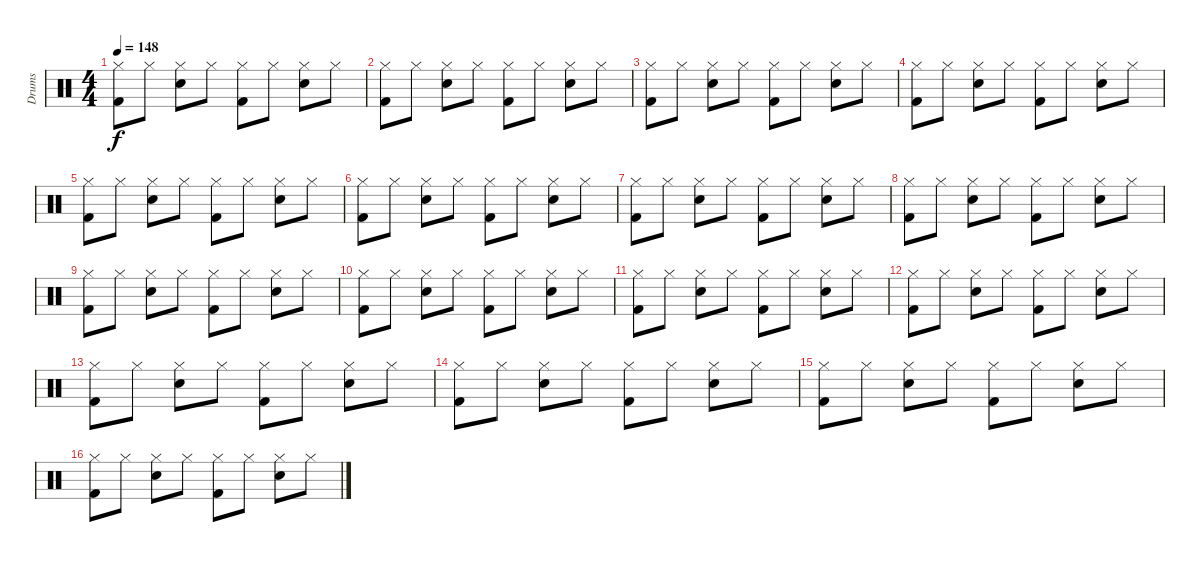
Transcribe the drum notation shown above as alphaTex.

\track ("Drums" "Drums") {instrument percussion}
\staff {score}
\articulation defaults
\ts (4 4)
\tempo 148
\clef neutral
\ks c
("Kick (hit) 2" "Hi-Hat (closed)").8{dy f} "Hi-Hat (closed)".8 ("Snare (hit) 2" "Hi-Hat (closed)").8 "Hi-Hat (closed)".8 ("Kick (hit) 2" "Hi-Hat (closed)").8 "Hi-Hat (closed)".8 ("Snare (hit) 2" "Hi-Hat (closed)").8 "Hi-Hat (closed)".8 |
("Kick (hit) 2" "Hi-Hat (closed)").8 "Hi-Hat (closed)".8 ("Snare (hit) 2" "Hi-Hat (closed)").8 "Hi-Hat (closed)".8 ("Kick (hit) 2" "Hi-Hat (closed)").8 "Hi-Hat (closed)".8 ("Snare (hit) 2" "Hi-Hat (closed)").8 "Hi-Hat (closed)".8 |
("Kick (hit) 2" "Hi-Hat (closed)").8 "Hi-Hat (closed)".8 ("Snare (hit) 2" "Hi-Hat (closed)").8 "Hi-Hat (closed)".8 ("Kick (hit) 2" "Hi-Hat (closed)").8 "Hi-Hat (closed)".8 ("Snare (hit) 2" "Hi-Hat (closed)").8 "Hi-Hat (closed)".8 |
("Kick (hit) 2" "Hi-Hat (closed)").8 "Hi-Hat (closed)".8 ("Snare (hit) 2" "Hi-Hat (closed)").8 "Hi-Hat (closed)".8 ("Kick (hit) 2" "Hi-Hat (closed)").8 "Hi-Hat (closed)".8 ("Snare (hit) 2" "Hi-Hat (closed)").8 "Hi-Hat (closed)".8 |
("Kick (hit) 2" "Hi-Hat (closed)").8 "Hi-Hat (closed)".8 ("Snare (hit) 2" "Hi-Hat (closed)").8 "Hi-Hat (closed)".8 ("Kick (hit) 2" "Hi-Hat (closed)").8 "Hi-Hat (closed)".8 ("Snare (hit) 2" "Hi-Hat (closed)").8 "Hi-Hat (closed)".8 |
("Kick (hit) 2" "Hi-Hat (closed)").8 "Hi-Hat (closed)".8 ("Snare (hit) 2" "Hi-Hat (closed)").8 "Hi-Hat (closed)".8 ("Kick (hit) 2" "Hi-Hat (closed)").8 "Hi-Hat (closed)".8 ("Snare (hit) 2" "Hi-Hat (closed)").8 "Hi-Hat (closed)".8 |
("Kick (hit) 2" "Hi-Hat (closed)").8 "Hi-Hat (closed)".8 ("Snare (hit) 2" "Hi-Hat (closed)").8 "Hi-Hat (closed)".8 ("Kick (hit) 2" "Hi-Hat (closed)").8 "Hi-Hat (closed)".8 ("Snare (hit) 2" "Hi-Hat (closed)").8 "Hi-Hat (closed)".8 |
("Kick (hit) 2" "Hi-Hat (closed)").8 "Hi-Hat (closed)".8 ("Snare (hit) 2" "Hi-Hat (closed)").8 "Hi-Hat (closed)".8 ("Kick (hit) 2" "Hi-Hat (closed)").8 "Hi-Hat (closed)".8 ("Snare (hit) 2" "Hi-Hat (closed)").8 "Hi-Hat (closed)".8 |
("Kick (hit) 2" "Hi-Hat (closed)").8 "Hi-Hat (closed)".8 ("Snare (hit) 2" "Hi-Hat (closed)").8 "Hi-Hat (closed)".8 ("Kick (hit) 2" "Hi-Hat (closed)").8 "Hi-Hat (closed)".8 ("Snare (hit) 2" "Hi-Hat (closed)").8 "Hi-Hat (closed)".8 |
("Kick (hit) 2" "Hi-Hat (closed)").8 "Hi-Hat (closed)".8 ("Snare (hit) 2" "Hi-Hat (closed)").8 "Hi-Hat (closed)".8 ("Kick (hit) 2" "Hi-Hat (closed)").8 "Hi-Hat (closed)".8 ("Snare (hit) 2" "Hi-Hat (closed)").8 "Hi-Hat (closed)".8 |
("Kick (hit) 2" "Hi-Hat (closed)").8 "Hi-Hat (closed)".8 ("Snare (hit) 2" "Hi-Hat (closed)").8 "Hi-Hat (closed)".8 ("Kick (hit) 2" "Hi-Hat (closed)").8 "Hi-Hat (closed)".8 ("Snare (hit) 2" "Hi-Hat (closed)").8 "Hi-Hat (closed)".8 |
("Kick (hit) 2" "Hi-Hat (closed)").8 "Hi-Hat (closed)".8 ("Snare (hit) 2" "Hi-Hat (closed)").8 "Hi-Hat (closed)".8 ("Kick (hit) 2" "Hi-Hat (closed)").8 "Hi-Hat (closed)".8 ("Snare (hit) 2" "Hi-Hat (closed)").8 "Hi-Hat (closed)".8 |
("Kick (hit) 2" "Hi-Hat (closed)").8 "Hi-Hat (closed)".8 ("Snare (hit) 2" "Hi-Hat (closed)").8 "Hi-Hat (closed)".8 ("Kick (hit) 2" "Hi-Hat (closed)").8 "Hi-Hat (closed)".8 ("Snare (hit) 2" "Hi-Hat (closed)").8 "Hi-Hat (closed)".8 |
("Kick (hit) 2" "Hi-Hat (closed)").8 "Hi-Hat (closed)".8 ("Snare (hit) 2" "Hi-Hat (closed)").8 "Hi-Hat (closed)".8 ("Kick (hit) 2" "Hi-Hat (closed)").8 "Hi-Hat (closed)".8 ("Snare (hit) 2" "Hi-Hat (closed)").8 "Hi-Hat (closed)".8 |
("Kick (hit) 2" "Hi-Hat (closed)").8 "Hi-Hat (closed)".8 ("Snare (hit) 2" "Hi-Hat (closed)").8 "Hi-Hat (closed)".8 ("Kick (hit) 2" "Hi-Hat (closed)").8 "Hi-Hat (closed)".8 ("Snare (hit) 2" "Hi-Hat (closed)").8 "Hi-Hat (closed)".8 |
("Kick (hit) 2" "Hi-Hat (closed)").8 "Hi-Hat (closed)".8 ("Snare (hit) 2" "Hi-Hat (closed)").8 "Hi-Hat (closed)".8 ("Kick (hit) 2" "Hi-Hat (closed)").8 "Hi-Hat (closed)".8 ("Snare (hit) 2" "Hi-Hat (closed)").8 "Hi-Hat (closed)".8
